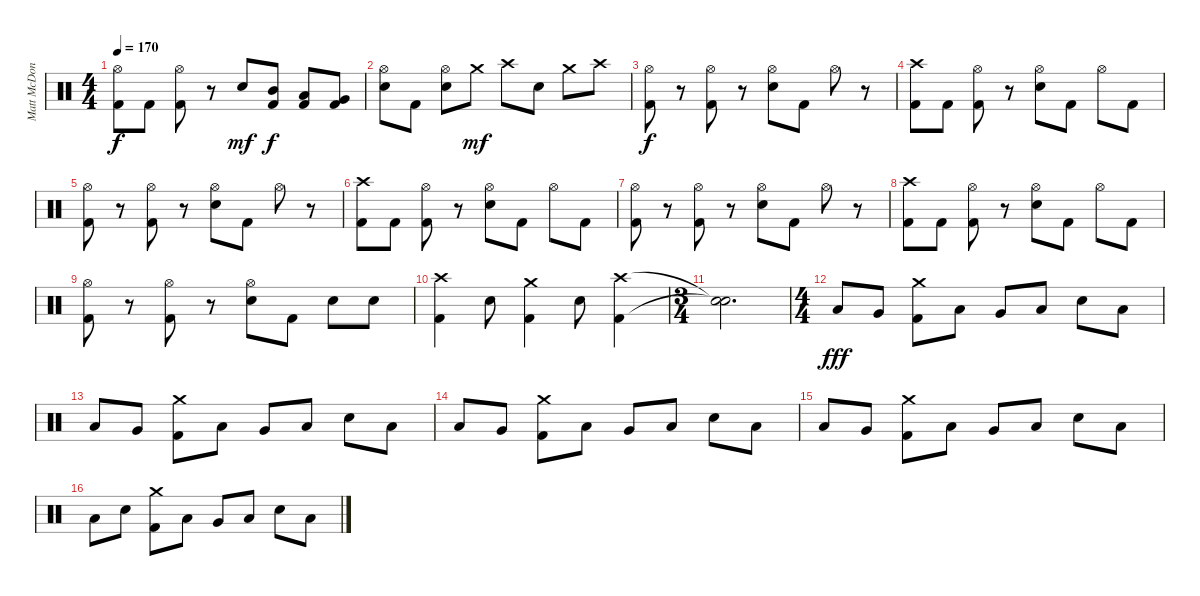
\track ("Matt McDonough" "Matt McDon") {instrument percussion}
\staff {score}
\articulation defaults
\ts (4 4)
\tempo 170
\clef neutral
\ks c
("Hi-Hat (open)" "Kick (hit) 2").8{dy f} "Kick (hit) 2".8 ("Hi-Hat (open)" "Kick (hit) 2").8 r.8 "Electric Snare (hit)".8{dy mf} ("Mid Tom (hit)" "Kick (hit) 2").8{dy f} ("Low Tom (hit)" "Kick (hit) 2").8 ("Very Low Tom (hit)" "Kick (hit) 2").8 |
("Hi-Hat (open)" "Electric Snare (hit)").8 "Kick (hit) 2".8 ("Hi-Hat (open)" "Electric Snare (hit)").8 "Crash medium (hit)".8{dy mf} "Crash high (hit)".8 "Electric Snare (hit)".8 "Crash medium (hit)".8 "Crash high (hit)".8 |
("Hi-Hat (open)" "Kick (hit) 2").8{dy f} r.8 ("Hi-Hat (open)" "Kick (hit) 2").8 r.8 ("Hi-Hat (open)" "Electric Snare (hit)").8 "Kick (hit) 2".8 "Hi-Hat (open)".8 r.8 |
("Crash high (hit)" "Kick (hit) 2").8 "Kick (hit) 2".8 ("Hi-Hat (open)" "Kick (hit) 2").8 r.8 ("Hi-Hat (open)" "Electric Snare (hit)").8 "Kick (hit) 2".8 "Hi-Hat (open)".8 "Kick (hit) 2".8 |
("Hi-Hat (open)" "Kick (hit) 2").8 r.8 ("Hi-Hat (open)" "Kick (hit) 2").8 r.8 ("Hi-Hat (open)" "Electric Snare (hit)").8 "Kick (hit) 2".8 "Hi-Hat (open)".8 r.8 |
("Crash high (hit)" "Kick (hit) 2").8 "Kick (hit) 2".8 ("Hi-Hat (open)" "Kick (hit) 2").8 r.8 ("Hi-Hat (open)" "Electric Snare (hit)").8 "Kick (hit) 2".8 "Hi-Hat (open)".8 "Kick (hit) 2".8 |
("Hi-Hat (open)" "Kick (hit) 2").8 r.8 ("Hi-Hat (open)" "Kick (hit) 2").8 r.8 ("Hi-Hat (open)" "Electric Snare (hit)").8 "Kick (hit) 2".8 "Hi-Hat (open)".8 r.8 |
("Crash high (hit)" "Kick (hit) 2").8 "Kick (hit) 2".8 ("Hi-Hat (open)" "Kick (hit) 2").8 r.8 ("Hi-Hat (open)" "Electric Snare (hit)").8 "Kick (hit) 2".8 "Hi-Hat (open)".8 "Kick (hit) 2".8 |
("Hi-Hat (open)" "Kick (hit) 2").8 r.8 ("Hi-Hat (open)" "Kick (hit) 2").8 r.8 ("Hi-Hat (open)" "Electric Snare (hit)").8 "Kick (hit) 2".8 "Electric Snare (hit)".8 "Electric Snare (hit)".8 |
("Crash high (hit)" "Kick (hit) 2").4 "Electric Snare (hit)".8 ("Crash medium (hit)" "Kick (hit) 2").4 "Electric Snare (hit)".8 ("Crash high (hit)" "Kick (hit) 2").4 |
\ts (3 4)
("Snare (hit)"{t} "Snare (hit)"{t}).2{d} |
\ts (4 4)
"Low Floor Tom (hit)".8{dy fff} "Very Low Tom (hit)".8 ("Crash medium (hit)" "Kick (hit) 2").8 "Low Tom (hit)".8 "Very Low Tom (hit)".8 "Low Floor Tom (hit)".8 "Electric Snare (hit)".8 "Low Tom (hit)".8 |
"Low Floor Tom (hit)".8 "Very Low Tom (hit)".8 ("Crash medium (hit)" "Kick (hit) 2").8 "Low Tom (hit)".8 "Very Low Tom (hit)".8 "Low Floor Tom (hit)".8 "Electric Snare (hit)".8 "Low Tom (hit)".8 |
"Low Floor Tom (hit)".8 "Very Low Tom (hit)".8 ("Crash medium (hit)" "Kick (hit) 2").8 "Low Tom (hit)".8 "Very Low Tom (hit)".8 "Low Floor Tom (hit)".8 "Electric Snare (hit)".8 "Low Tom (hit)".8 |
"Low Floor Tom (hit)".8 "Very Low Tom (hit)".8 ("Crash medium (hit)" "Kick (hit) 2").8 "Low Tom (hit)".8 "Very Low Tom (hit)".8 "Low Floor Tom (hit)".8 "Electric Snare (hit)".8 "Low Tom (hit)".8 |
"Low Floor Tom (hit)".8 "Electric Snare (hit)".8 ("Crash medium (hit)" "Kick (hit) 2").8 "Low Tom (hit)".8 "Very Low Tom (hit)".8 "Low Floor Tom (hit)".8 "Electric Snare (hit)".8 "Low Tom (hit)".8
